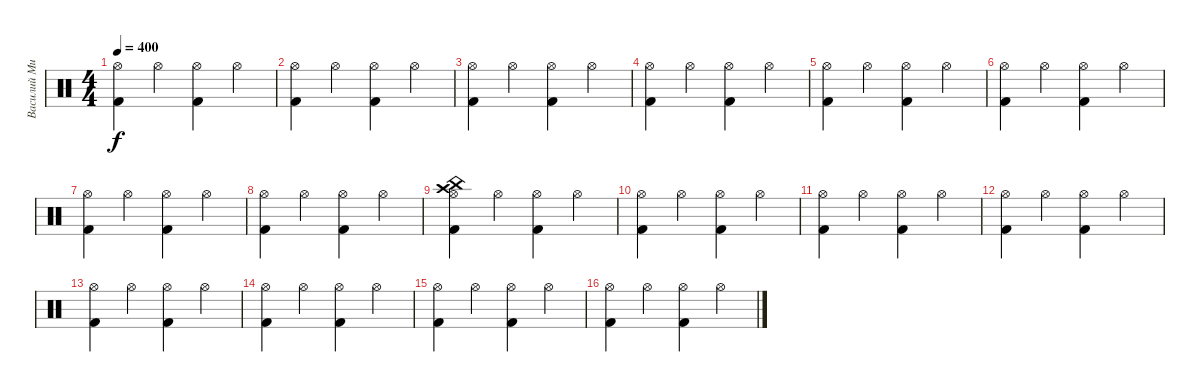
\track ("Василий Михалыч-ударные" "Василий Ми") {instrument percussion}
\staff {score}
\articulation defaults
\ts (4 4)
\tempo 400
\clef neutral
\ks c
("Kick (hit) 2" "Hi-Hat (open)").4{dy f} "Hi-Hat (open)".4 ("Kick (hit) 2" "Hi-Hat (open)").4 "Hi-Hat (open)".4 |
("Kick (hit) 2" "Hi-Hat (open)").4 "Hi-Hat (open)".4 ("Kick (hit) 2" "Hi-Hat (open)").4 "Hi-Hat (open)".4 |
("Kick (hit) 2" "Hi-Hat (open)").4 "Hi-Hat (open)".4 ("Kick (hit) 2" "Hi-Hat (open)").4 "Hi-Hat (open)".4 |
("Kick (hit) 2" "Hi-Hat (open)").4 "Hi-Hat (open)".4 ("Kick (hit) 2" "Hi-Hat (open)").4 "Hi-Hat (open)".4 |
("Kick (hit) 2" "Hi-Hat (open)").4 "Hi-Hat (open)".4 ("Kick (hit) 2" "Hi-Hat (open)").4 "Hi-Hat (open)".4 |
("Kick (hit) 2" "Hi-Hat (open)").4 "Hi-Hat (open)".4 ("Kick (hit) 2" "Hi-Hat (open)").4 "Hi-Hat (open)".4 |
("Kick (hit) 2" "Hi-Hat (open)").4 "Hi-Hat (open)".4 ("Kick (hit) 2" "Hi-Hat (open)").4 "Hi-Hat (open)".4 |
("Kick (hit) 2" "Hi-Hat (open)").4 "Hi-Hat (open)".4 ("Kick (hit) 2" "Hi-Hat (open)").4 "Hi-Hat (open)".4 |
("Kick (hit) 2" "Hi-Hat (open)" "Crash high (hit)" "China (hit)").4 "Hi-Hat (open)".4 ("Kick (hit) 2" "Hi-Hat (open)").4 "Hi-Hat (open)".4 |
("Kick (hit) 2" "Hi-Hat (open)").4 "Hi-Hat (open)".4 ("Kick (hit) 2" "Hi-Hat (open)").4 "Hi-Hat (open)".4 |
("Kick (hit) 2" "Hi-Hat (open)").4 "Hi-Hat (open)".4 ("Kick (hit) 2" "Hi-Hat (open)").4 "Hi-Hat (open)".4 |
("Kick (hit) 2" "Hi-Hat (open)").4 "Hi-Hat (open)".4 ("Kick (hit) 2" "Hi-Hat (open)").4 "Hi-Hat (open)".4 |
("Kick (hit) 2" "Hi-Hat (open)").4 "Hi-Hat (open)".4 ("Kick (hit) 2" "Hi-Hat (open)").4 "Hi-Hat (open)".4 |
("Kick (hit) 2" "Hi-Hat (open)").4 "Hi-Hat (open)".4 ("Kick (hit) 2" "Hi-Hat (open)").4 "Hi-Hat (open)".4 |
("Kick (hit) 2" "Hi-Hat (open)").4 "Hi-Hat (open)".4 ("Kick (hit) 2" "Hi-Hat (open)").4 "Hi-Hat (open)".4 |
("Kick (hit) 2" "Hi-Hat (open)").4 "Hi-Hat (open)".4 ("Kick (hit) 2" "Hi-Hat (open)").4 "Hi-Hat (open)".4
